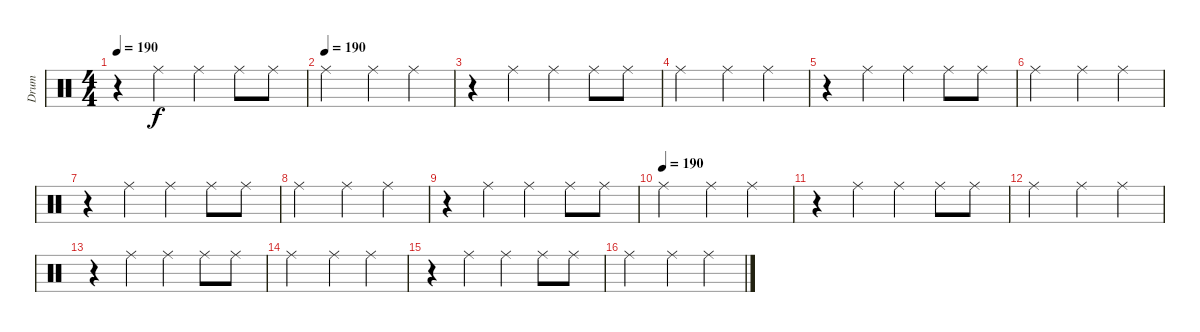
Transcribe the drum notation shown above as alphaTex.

\track ("Drum" "Drum") {instrument percussion}
\staff {score}
\articulation defaults
\ts (4 4)
\tempo 190
\clef neutral
\ks c
r.4{dy f} "Ride (middle)".4 "Ride (middle)".4 "Ride (middle)".8 "Ride (middle)".8 |
\tempo (190)
"Ride (middle)".2 "Ride (middle)".4 "Ride (middle)".4 |
r.4 "Ride (middle)".4 "Ride (middle)".4 "Ride (middle)".8 "Ride (middle)".8 |
"Ride (middle)".2 "Ride (middle)".4 "Ride (middle)".4 |
r.4 "Ride (middle)".4 "Ride (middle)".4 "Ride (middle)".8 "Ride (middle)".8 |
"Ride (middle)".2 "Ride (middle)".4 "Ride (middle)".4 |
r.4 "Ride (middle)".4 "Ride (middle)".4 "Ride (middle)".8 "Ride (middle)".8 |
"Ride (middle)".2 "Ride (middle)".4 "Ride (middle)".4 |
r.4 "Ride (middle)".4 "Ride (middle)".4 "Ride (middle)".8 "Ride (middle)".8 |
\tempo (190)
"Ride (middle)".2 "Ride (middle)".4 "Ride (middle)".4 |
r.4 "Ride (middle)".4 "Ride (middle)".4 "Ride (middle)".8 "Ride (middle)".8 |
"Ride (middle)".2 "Ride (middle)".4 "Ride (middle)".4 |
r.4 "Ride (middle)".4 "Ride (middle)".4 "Ride (middle)".8 "Ride (middle)".8 |
"Ride (middle)".2 "Ride (middle)".4 "Ride (middle)".4 |
r.4 "Ride (middle)".4 "Ride (middle)".4 "Ride (middle)".8 "Ride (middle)".8 |
"Ride (middle)".2 "Ride (middle)".4 "Ride (middle)".4
